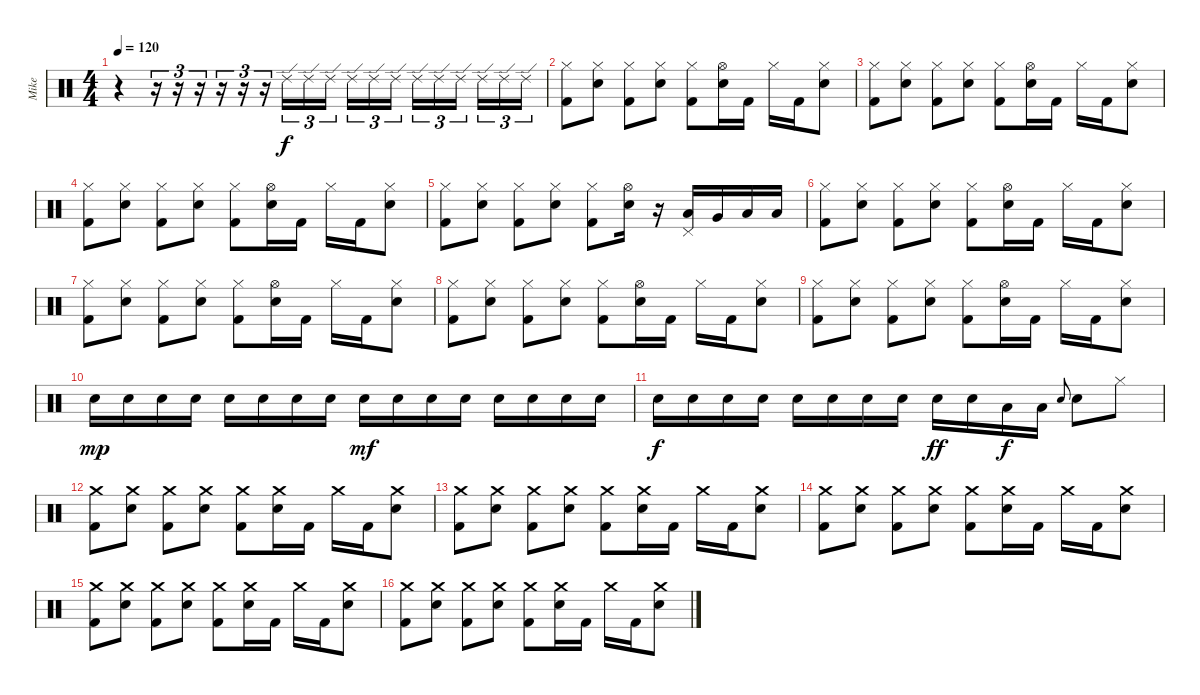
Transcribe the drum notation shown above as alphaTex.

\track ("Mike" "Mike") {instrument percussion}
\staff {score}
\articulation defaults
\ts (4 4)
\tempo 120
\clef neutral
\ks c
r.4{dy f} r.16{tu (3 2)} r.16{tu (3 2)} r.16{tu (3 2)} r.16{tu (3 2)} r.16{tu (3 2)} r.16{tu (3 2)} "Ride (edge) 2".16{tu (3 2)} "Ride (edge) 2".16{tu (3 2)} "Ride (edge) 2".16{tu (3 2) beam splitsecondary} "Ride (edge) 2".16{tu (3 2)} "Ride (edge) 2".16{tu (3 2)} "Ride (edge) 2".16{tu (3 2)} "Ride (edge) 2".16{tu (3 2)} "Ride (edge) 2".16{tu (3 2)} "Ride (edge) 2".16{tu (3 2) beam splitsecondary} "Ride (edge) 2".16{tu (3 2)} "Ride (edge) 2".16{tu (3 2)} "Ride (edge) 2".16{tu (3 2)} |
("Hi-Hat (closed)" "Kick (hit) 2").8 ("Hi-Hat (closed)" "Electric Snare (hit)").8 ("Hi-Hat (closed)" "Kick (hit) 2").8 ("Hi-Hat (closed)" "Electric Snare (hit)").8 ("Hi-Hat (closed)" "Kick (hit) 2").8 ("Hi-Hat (open)" "Electric Snare (hit)").16 "Kick (hit) 2".16 "Hi-Hat (closed)".16 "Kick (hit) 2".16 ("Hi-Hat (closed)" "Electric Snare (hit)").8 |
("Hi-Hat (closed)" "Kick (hit) 2").8 ("Hi-Hat (closed)" "Electric Snare (hit)").8 ("Hi-Hat (closed)" "Kick (hit) 2").8 ("Hi-Hat (closed)" "Electric Snare (hit)").8 ("Hi-Hat (closed)" "Kick (hit) 2").8 ("Hi-Hat (open)" "Electric Snare (hit)").16 "Kick (hit) 2".16 "Hi-Hat (closed)".16 "Kick (hit) 2".16 ("Hi-Hat (closed)" "Electric Snare (hit)").8 |
("Hi-Hat (closed)" "Kick (hit) 2").8 ("Hi-Hat (closed)" "Electric Snare (hit)").8 ("Hi-Hat (closed)" "Kick (hit) 2").8 ("Hi-Hat (closed)" "Electric Snare (hit)").8 ("Hi-Hat (closed)" "Kick (hit) 2").8 ("Hi-Hat (open)" "Electric Snare (hit)").16 "Kick (hit) 2".16 "Hi-Hat (closed)".16 "Kick (hit) 2".16 ("Hi-Hat (closed)" "Electric Snare (hit)").8 |
("Hi-Hat (closed)" "Kick (hit) 2").8 ("Hi-Hat (closed)" "Electric Snare (hit)").8 ("Hi-Hat (closed)" "Kick (hit) 2").8 ("Hi-Hat (closed)" "Electric Snare (hit)").8 ("Hi-Hat (closed)" "Kick (hit) 2").8 ("Hi-Hat (open)" "Electric Snare (hit)").16 r.16 ("Pedal Hi-Hat (hit)" "Low Tom (hit)").16 "Very Low Tom (hit)".16 "Low Floor Tom (hit)".16 "Low Floor Tom (hit)".16 |
("Hi-Hat (closed)" "Kick (hit) 2").8 ("Hi-Hat (closed)" "Electric Snare (hit)").8 ("Hi-Hat (closed)" "Kick (hit) 2").8 ("Hi-Hat (closed)" "Electric Snare (hit)").8 ("Hi-Hat (closed)" "Kick (hit) 2").8 ("Hi-Hat (open)" "Electric Snare (hit)").16 "Kick (hit) 2".16 "Hi-Hat (closed)".16 "Kick (hit) 2".16 ("Hi-Hat (closed)" "Electric Snare (hit)").8 |
("Hi-Hat (closed)" "Kick (hit) 2").8 ("Hi-Hat (closed)" "Electric Snare (hit)").8 ("Hi-Hat (closed)" "Kick (hit) 2").8 ("Hi-Hat (closed)" "Electric Snare (hit)").8 ("Hi-Hat (closed)" "Kick (hit) 2").8 ("Hi-Hat (open)" "Electric Snare (hit)").16 "Kick (hit) 2".16 "Hi-Hat (closed)".16 "Kick (hit) 2".16 ("Hi-Hat (closed)" "Electric Snare (hit)").8 |
("Hi-Hat (closed)" "Kick (hit) 2").8 ("Hi-Hat (closed)" "Electric Snare (hit)").8 ("Hi-Hat (closed)" "Kick (hit) 2").8 ("Hi-Hat (closed)" "Electric Snare (hit)").8 ("Hi-Hat (closed)" "Kick (hit) 2").8 ("Hi-Hat (open)" "Electric Snare (hit)").16 "Kick (hit) 2".16 "Hi-Hat (closed)".16 "Kick (hit) 2".16 ("Hi-Hat (closed)" "Electric Snare (hit)").8 |
("Hi-Hat (closed)" "Kick (hit) 2").8 ("Hi-Hat (closed)" "Electric Snare (hit)").8 ("Hi-Hat (closed)" "Kick (hit) 2").8 ("Hi-Hat (closed)" "Electric Snare (hit)").8 ("Hi-Hat (closed)" "Kick (hit) 2").8 ("Hi-Hat (open)" "Electric Snare (hit)").16 "Kick (hit) 2".16 "Hi-Hat (closed)".16 "Kick (hit) 2".16 ("Hi-Hat (closed)" "Electric Snare (hit)").8 |
"Electric Snare (hit)".16{dy mp} "Electric Snare (hit)".16 "Electric Snare (hit)".16 "Electric Snare (hit)".16 "Electric Snare (hit)".16 "Electric Snare (hit)".16 "Electric Snare (hit)".16 "Electric Snare (hit)".16 "Electric Snare (hit)".16{dy mf} "Electric Snare (hit)".16 "Electric Snare (hit)".16 "Electric Snare (hit)".16 "Electric Snare (hit)".16 "Electric Snare (hit)".16 "Electric Snare (hit)".16 "Electric Snare (hit)".16 |
"Electric Snare (hit)".16{dy f} "Electric Snare (hit)".16 "Electric Snare (hit)".16 "Electric Snare (hit)".16 "Electric Snare (hit)".16 "Electric Snare (hit)".16 "Electric Snare (hit)".16 "Electric Snare (hit)".16 "Electric Snare (hit)".16{dy ff} "Electric Snare (hit)".16 "Low Tom (hit)".16{dy f} "Low Tom (hit)".16 "Electric Snare (hit)".8{gr onbeat} "Electric Snare (hit)".8 "Hi-Hat (closed)".8 |
("Crash medium (hit)" "Kick (hit) 2").8 ("Crash medium (hit)" "Electric Snare (hit)").8 ("Crash medium (hit)" "Kick (hit) 2").8 ("Crash medium (hit)" "Electric Snare (hit)").8 ("Crash medium (hit)" "Kick (hit) 2").8 ("Crash medium (hit)" "Electric Snare (hit)").16 "Kick (hit) 2".16 "Crash medium (hit)".16 "Kick (hit) 2".16 ("Crash medium (hit)" "Electric Snare (hit)").8 |
("Crash medium (hit)" "Kick (hit) 2").8 ("Crash medium (hit)" "Electric Snare (hit)").8 ("Crash medium (hit)" "Kick (hit) 2").8 ("Crash medium (hit)" "Electric Snare (hit)").8 ("Crash medium (hit)" "Kick (hit) 2").8 ("Crash medium (hit)" "Electric Snare (hit)").16 "Kick (hit) 2".16 "Crash medium (hit)".16 "Kick (hit) 2".16 ("Crash medium (hit)" "Electric Snare (hit)").8 |
("Crash medium (hit)" "Kick (hit) 2").8 ("Crash medium (hit)" "Electric Snare (hit)").8 ("Crash medium (hit)" "Kick (hit) 2").8 ("Crash medium (hit)" "Electric Snare (hit)").8 ("Crash medium (hit)" "Kick (hit) 2").8 ("Crash medium (hit)" "Electric Snare (hit)").16 "Kick (hit) 2".16 "Crash medium (hit)".16 "Kick (hit) 2".16 ("Crash medium (hit)" "Electric Snare (hit)").8 |
("Crash medium (hit)" "Kick (hit) 2").8 ("Crash medium (hit)" "Electric Snare (hit)").8 ("Crash medium (hit)" "Kick (hit) 2").8 ("Crash medium (hit)" "Electric Snare (hit)").8 ("Crash medium (hit)" "Kick (hit) 2").8 ("Crash medium (hit)" "Electric Snare (hit)").16 "Kick (hit) 2".16 "Crash medium (hit)".16 "Kick (hit) 2".16 ("Crash medium (hit)" "Electric Snare (hit)").8 |
("Crash medium (hit)" "Kick (hit) 2").8 ("Crash medium (hit)" "Electric Snare (hit)").8 ("Crash medium (hit)" "Kick (hit) 2").8 ("Crash medium (hit)" "Electric Snare (hit)").8 ("Crash medium (hit)" "Kick (hit) 2").8 ("Crash medium (hit)" "Electric Snare (hit)").16 "Kick (hit) 2".16 "Crash medium (hit)".16 "Kick (hit) 2".16 ("Crash medium (hit)" "Electric Snare (hit)").8
